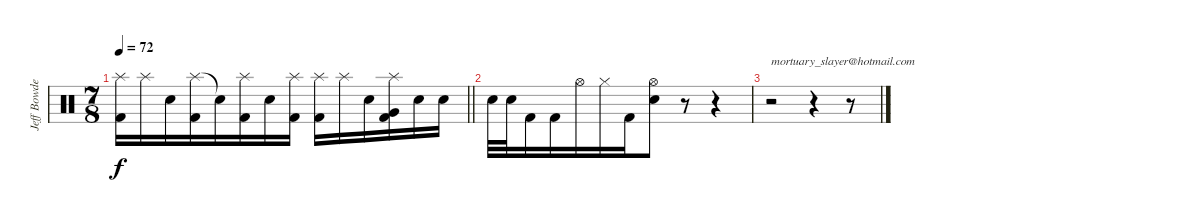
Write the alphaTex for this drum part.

\track ("Jeff Bowders" "Jeff Bowde") {instrument percussion}
\staff {score}
\articulation defaults
\ts (7 8)
\tempo 72
\clef neutral
\barLineRight lightlight
\ks aminor
("Splash (hit)" "Kick (hit) 2").16{dy f} "Splash (hit)".16 "Electric Snare (hit)".16 ("Splash (hit)" "Kick (hit) 2").16 "Snare (hit)"{t}.16 ("Splash (hit)" "Kick (hit) 2").16 "Electric Snare (hit)".16 ("Splash (hit)" "Kick (hit) 2").16 ("Splash (hit)" "Kick (hit) 2").16 "Splash (hit)".16 "Electric Snare (hit)".16 ("Splash (hit)" "Very Low Tom (hit)" "Kick (hit) 2").16 "Electric Snare (hit)".16 "Electric Snare (hit)".16 |
"Electric Snare (hit)".32 "Electric Snare (hit)".32 "Kick (hit) 2".16 "Kick (hit) 2".16 "Hi-Hat (open)".16 "Hi-Hat (closed)".16 "Kick (hit) 2".16 ("Hi-Hat (open)" "Electric Snare (hit)").8 r.8 r.4 |
r.2{txt "mortuary_slayer@hotmail.com"} r.4 r.8
